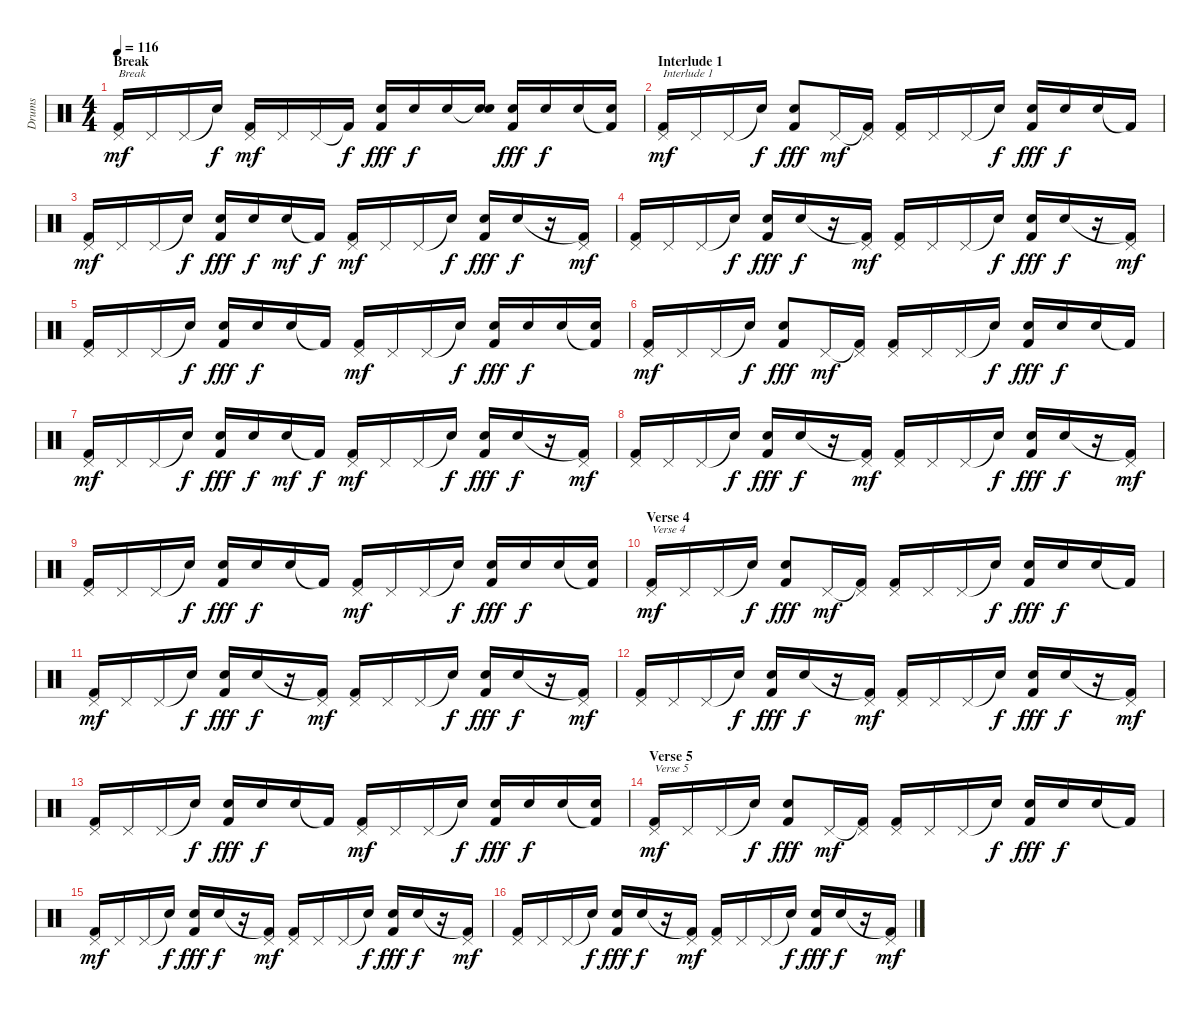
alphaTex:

\track ("Drums" "Drums") {instrument percussion}
\staff {score}
\articulation defaults
\ts (4 4)
\section ("" "Break")
\tempo 116
\clef neutral
\ks c
("Kick (hit) 2" "Pedal Hi-Hat (hit)").16{txt "Break" dy mf} "Pedal Hi-Hat (hit)".16 "Pedal Hi-Hat (hit)".16 "Snare (hit)"{t}.16{dy f} ("Kick (hit) 2" "Pedal Hi-Hat (hit)").16{dy mf} "Pedal Hi-Hat (hit)".16 "Pedal Hi-Hat (hit)".16 "Kick (hit) 2"{t}.16{dy f} ("Kick (hit) 2" "Electric Snare (hit)").16{dy fff} "Electric Snare (hit)".16{dy f} "Electric Snare (hit)".16 ("Snare (hit)"{t} "Electric Snare (hit)").16 ("Kick (hit) 2" "Electric Snare (hit)").16{dy fff} "Electric Snare (hit)".16{dy f} "Electric Snare (hit)".16 ("Kick (hit) 2"{t} "Electric Snare (hit)").16 |
\section ("" "Interlude 1")
("Kick (hit) 2" "Pedal Hi-Hat (hit)").16{txt "Interlude 1" dy mf} "Pedal Hi-Hat (hit)".16 "Pedal Hi-Hat (hit)".16 "Snare (hit)"{t}.16{dy f} ("Kick (hit) 2" "Electric Snare (hit)").8{dy fff} "Pedal Hi-Hat (hit)".16{dy mf} ("Kick (hit) 2"{t} "Pedal Hi-Hat (hit)").16 ("Kick (hit) 2" "Pedal Hi-Hat (hit)").16 "Pedal Hi-Hat (hit)".16 "Pedal Hi-Hat (hit)".16 "Snare (hit)"{t}.16{dy f} ("Kick (hit) 2" "Electric Snare (hit)").16{dy fff} "Electric Snare (hit)".16{dy f} "Electric Snare (hit)".16 "Kick (hit) 2"{t}.16 |
("Kick (hit) 2" "Pedal Hi-Hat (hit)").16{dy mf} "Pedal Hi-Hat (hit)".16 "Pedal Hi-Hat (hit)".16 "Snare (hit)"{t}.16{dy f} ("Kick (hit) 2" "Electric Snare (hit)").16{dy fff} "Electric Snare (hit)".16{dy f} "Electric Snare (hit)".16{dy mf} "Kick (hit) 2"{t}.16{dy f} ("Kick (hit) 2" "Pedal Hi-Hat (hit)").16{dy mf} "Pedal Hi-Hat (hit)".16 "Pedal Hi-Hat (hit)".16 "Snare (hit)"{t}.16{dy f} ("Kick (hit) 2" "Electric Snare (hit)").16{dy fff} "Electric Snare (hit)".16{dy f} r.16 ("Kick (hit) 2"{t} "Pedal Hi-Hat (hit)").16{dy mf} |
("Kick (hit) 2" "Pedal Hi-Hat (hit)").16 "Pedal Hi-Hat (hit)".16 "Pedal Hi-Hat (hit)".16 "Snare (hit)"{t}.16{dy f} ("Kick (hit) 2" "Electric Snare (hit)").16{dy fff} "Electric Snare (hit)".16{dy f} r.16 ("Kick (hit) 2"{t} "Pedal Hi-Hat (hit)").16{dy mf} ("Kick (hit) 2" "Pedal Hi-Hat (hit)").16 "Pedal Hi-Hat (hit)".16 "Pedal Hi-Hat (hit)".16 "Snare (hit)"{t}.16{dy f} ("Kick (hit) 2" "Electric Snare (hit)").16{dy fff} "Electric Snare (hit)".16{dy f} r.16 ("Kick (hit) 2"{t} "Pedal Hi-Hat (hit)").16{dy mf} |
("Kick (hit) 2" "Pedal Hi-Hat (hit)").16 "Pedal Hi-Hat (hit)".16 "Pedal Hi-Hat (hit)".16 "Snare (hit)"{t}.16{dy f} ("Kick (hit) 2" "Electric Snare (hit)").16{dy fff} "Electric Snare (hit)".16{dy f} "Electric Snare (hit)".16 "Kick (hit) 2"{t}.16 ("Kick (hit) 2" "Pedal Hi-Hat (hit)").16{dy mf} "Pedal Hi-Hat (hit)".16 "Pedal Hi-Hat (hit)".16 "Snare (hit)"{t}.16{dy f} ("Kick (hit) 2" "Electric Snare (hit)").16{dy fff} "Electric Snare (hit)".16{dy f} "Electric Snare (hit)".16 ("Kick (hit) 2"{t} "Electric Snare (hit)").16 |
("Kick (hit) 2" "Pedal Hi-Hat (hit)").16{dy mf} "Pedal Hi-Hat (hit)".16 "Pedal Hi-Hat (hit)".16 "Snare (hit)"{t}.16{dy f} ("Kick (hit) 2" "Electric Snare (hit)").8{dy fff} "Pedal Hi-Hat (hit)".16{dy mf} ("Kick (hit) 2"{t} "Pedal Hi-Hat (hit)").16 ("Kick (hit) 2" "Pedal Hi-Hat (hit)").16 "Pedal Hi-Hat (hit)".16 "Pedal Hi-Hat (hit)".16 "Snare (hit)"{t}.16{dy f} ("Kick (hit) 2" "Electric Snare (hit)").16{dy fff} "Electric Snare (hit)".16{dy f} "Electric Snare (hit)".16 "Kick (hit) 2"{t}.16 |
("Kick (hit) 2" "Pedal Hi-Hat (hit)").16{dy mf} "Pedal Hi-Hat (hit)".16 "Pedal Hi-Hat (hit)".16 "Snare (hit)"{t}.16{dy f} ("Kick (hit) 2" "Electric Snare (hit)").16{dy fff} "Electric Snare (hit)".16{dy f} "Electric Snare (hit)".16{dy mf} "Kick (hit) 2"{t}.16{dy f} ("Kick (hit) 2" "Pedal Hi-Hat (hit)").16{dy mf} "Pedal Hi-Hat (hit)".16 "Pedal Hi-Hat (hit)".16 "Snare (hit)"{t}.16{dy f} ("Kick (hit) 2" "Electric Snare (hit)").16{dy fff} "Electric Snare (hit)".16{dy f} r.16 ("Kick (hit) 2"{t} "Pedal Hi-Hat (hit)").16{dy mf} |
("Kick (hit) 2" "Pedal Hi-Hat (hit)").16 "Pedal Hi-Hat (hit)".16 "Pedal Hi-Hat (hit)".16 "Snare (hit)"{t}.16{dy f} ("Kick (hit) 2" "Electric Snare (hit)").16{dy fff} "Electric Snare (hit)".16{dy f} r.16 ("Kick (hit) 2"{t} "Pedal Hi-Hat (hit)").16{dy mf} ("Kick (hit) 2" "Pedal Hi-Hat (hit)").16 "Pedal Hi-Hat (hit)".16 "Pedal Hi-Hat (hit)".16 "Snare (hit)"{t}.16{dy f} ("Kick (hit) 2" "Electric Snare (hit)").16{dy fff} "Electric Snare (hit)".16{dy f} r.16 ("Kick (hit) 2"{t} "Pedal Hi-Hat (hit)").16{dy mf} |
("Kick (hit) 2" "Pedal Hi-Hat (hit)").16 "Pedal Hi-Hat (hit)".16 "Pedal Hi-Hat (hit)".16 "Snare (hit)"{t}.16{dy f} ("Kick (hit) 2" "Electric Snare (hit)").16{dy fff} "Electric Snare (hit)".16{dy f} "Electric Snare (hit)".16 "Kick (hit) 2"{t}.16 ("Kick (hit) 2" "Pedal Hi-Hat (hit)").16{dy mf} "Pedal Hi-Hat (hit)".16 "Pedal Hi-Hat (hit)".16 "Snare (hit)"{t}.16{dy f} ("Kick (hit) 2" "Electric Snare (hit)").16{dy fff} "Electric Snare (hit)".16{dy f} "Electric Snare (hit)".16 ("Kick (hit) 2"{t} "Electric Snare (hit)").16 |
\section ("" "Verse 4")
("Kick (hit) 2" "Pedal Hi-Hat (hit)").16{txt "Verse 4" dy mf} "Pedal Hi-Hat (hit)".16 "Pedal Hi-Hat (hit)".16 "Snare (hit)"{t}.16{dy f} ("Kick (hit) 2" "Electric Snare (hit)").8{dy fff} "Pedal Hi-Hat (hit)".16{dy mf} ("Kick (hit) 2"{t} "Pedal Hi-Hat (hit)").16 ("Kick (hit) 2" "Pedal Hi-Hat (hit)").16 "Pedal Hi-Hat (hit)".16 "Pedal Hi-Hat (hit)".16 "Snare (hit)"{t}.16{dy f} ("Kick (hit) 2" "Electric Snare (hit)").16{dy fff} "Electric Snare (hit)".16{dy f} "Electric Snare (hit)".16 "Kick (hit) 2"{t}.16 |
("Kick (hit) 2" "Pedal Hi-Hat (hit)").16{dy mf} "Pedal Hi-Hat (hit)".16 "Pedal Hi-Hat (hit)".16 "Snare (hit)"{t}.16{dy f} ("Kick (hit) 2" "Electric Snare (hit)").16{dy fff} "Electric Snare (hit)".16{dy f} r.16 ("Kick (hit) 2"{t} "Pedal Hi-Hat (hit)").16{dy mf} ("Kick (hit) 2" "Pedal Hi-Hat (hit)").16 "Pedal Hi-Hat (hit)".16 "Pedal Hi-Hat (hit)".16 "Snare (hit)"{t}.16{dy f} ("Kick (hit) 2" "Electric Snare (hit)").16{dy fff} "Electric Snare (hit)".16{dy f} r.16 ("Kick (hit) 2"{t} "Pedal Hi-Hat (hit)").16{dy mf} |
("Kick (hit) 2" "Pedal Hi-Hat (hit)").16 "Pedal Hi-Hat (hit)".16 "Pedal Hi-Hat (hit)".16 "Snare (hit)"{t}.16{dy f} ("Kick (hit) 2" "Electric Snare (hit)").16{dy fff} "Electric Snare (hit)".16{dy f} r.16 ("Kick (hit) 2"{t} "Pedal Hi-Hat (hit)").16{dy mf} ("Kick (hit) 2" "Pedal Hi-Hat (hit)").16 "Pedal Hi-Hat (hit)".16 "Pedal Hi-Hat (hit)".16 "Snare (hit)"{t}.16{dy f} ("Kick (hit) 2" "Electric Snare (hit)").16{dy fff} "Electric Snare (hit)".16{dy f} r.16 ("Kick (hit) 2"{t} "Pedal Hi-Hat (hit)").16{dy mf} |
("Kick (hit) 2" "Pedal Hi-Hat (hit)").16 "Pedal Hi-Hat (hit)".16 "Pedal Hi-Hat (hit)".16 "Snare (hit)"{t}.16{dy f} ("Kick (hit) 2" "Electric Snare (hit)").16{dy fff} "Electric Snare (hit)".16{dy f} "Electric Snare (hit)".16 "Kick (hit) 2"{t}.16 ("Kick (hit) 2" "Pedal Hi-Hat (hit)").16{dy mf} "Pedal Hi-Hat (hit)".16 "Pedal Hi-Hat (hit)".16 "Snare (hit)"{t}.16{dy f} ("Kick (hit) 2" "Electric Snare (hit)").16{dy fff} "Electric Snare (hit)".16{dy f} "Electric Snare (hit)".16 ("Kick (hit) 2"{t} "Electric Snare (hit)").16 |
\section ("" "Verse 5")
("Kick (hit) 2" "Pedal Hi-Hat (hit)").16{txt "Verse 5" dy mf} "Pedal Hi-Hat (hit)".16 "Pedal Hi-Hat (hit)".16 "Snare (hit)"{t}.16{dy f} ("Kick (hit) 2" "Electric Snare (hit)").8{dy fff} "Pedal Hi-Hat (hit)".16{dy mf} ("Kick (hit) 2"{t} "Pedal Hi-Hat (hit)").16 ("Kick (hit) 2" "Pedal Hi-Hat (hit)").16 "Pedal Hi-Hat (hit)".16 "Pedal Hi-Hat (hit)".16 "Snare (hit)"{t}.16{dy f} ("Kick (hit) 2" "Electric Snare (hit)").16{dy fff} "Electric Snare (hit)".16{dy f} "Electric Snare (hit)".16 "Kick (hit) 2"{t}.16 |
("Kick (hit) 2" "Pedal Hi-Hat (hit)").16{dy mf} "Pedal Hi-Hat (hit)".16 "Pedal Hi-Hat (hit)".16 "Snare (hit)"{t}.16{dy f} ("Kick (hit) 2" "Electric Snare (hit)").16{dy fff} "Electric Snare (hit)".16{dy f} r.16 ("Kick (hit) 2"{t} "Pedal Hi-Hat (hit)").16{dy mf} ("Kick (hit) 2" "Pedal Hi-Hat (hit)").16 "Pedal Hi-Hat (hit)".16 "Pedal Hi-Hat (hit)".16 "Snare (hit)"{t}.16{dy f} ("Kick (hit) 2" "Electric Snare (hit)").16{dy fff} "Electric Snare (hit)".16{dy f} r.16 ("Kick (hit) 2"{t} "Pedal Hi-Hat (hit)").16{dy mf} |
("Kick (hit) 2" "Pedal Hi-Hat (hit)").16 "Pedal Hi-Hat (hit)".16 "Pedal Hi-Hat (hit)".16 "Snare (hit)"{t}.16{dy f} ("Kick (hit) 2" "Electric Snare (hit)").16{dy fff} "Electric Snare (hit)".16{dy f} r.16 ("Kick (hit) 2"{t} "Pedal Hi-Hat (hit)").16{dy mf} ("Kick (hit) 2" "Pedal Hi-Hat (hit)").16 "Pedal Hi-Hat (hit)".16 "Pedal Hi-Hat (hit)".16 "Snare (hit)"{t}.16{dy f} ("Kick (hit) 2" "Electric Snare (hit)").16{dy fff} "Electric Snare (hit)".16{dy f} r.16 ("Kick (hit) 2"{t} "Pedal Hi-Hat (hit)").16{dy mf}
